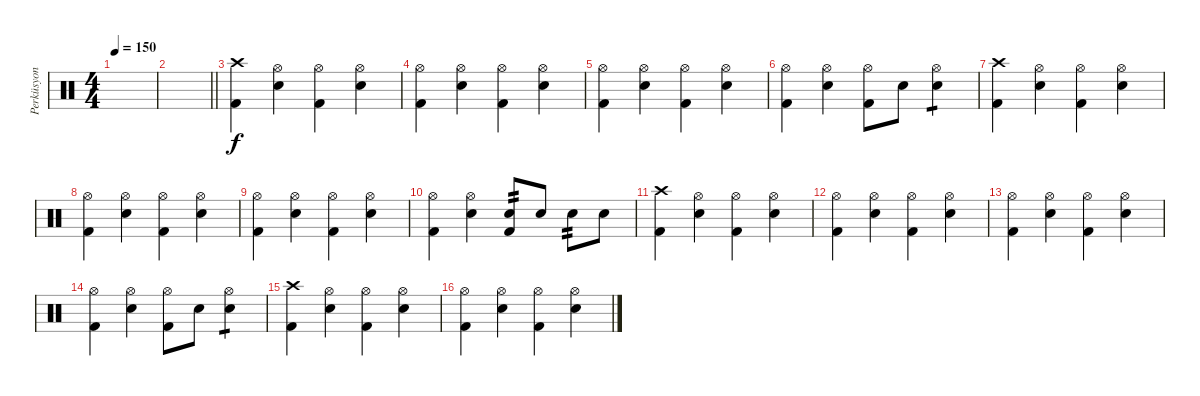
\track ("Perküsyon" "Perküsyon") {instrument percussion}
\staff {score}
\articulation defaults
\ts (4 4)
\tempo 150
\clef neutral
\ks c
|
\barLineRight lightlight
|
("Crash high (hit)" "Kick (hit) 2").4 ("Hi-Hat (open)" "Snare (hit) 2").4 ("Hi-Hat (open)" "Kick (hit) 2").4 ("Hi-Hat (open)" "Snare (hit) 2").4 |
("Hi-Hat (open)" "Kick (hit) 2").4 ("Hi-Hat (open)" "Snare (hit) 2").4 ("Hi-Hat (open)" "Kick (hit) 2").4 ("Hi-Hat (open)" "Snare (hit) 2").4 |
("Hi-Hat (open)" "Kick (hit) 2").4 ("Hi-Hat (open)" "Snare (hit) 2").4 ("Hi-Hat (open)" "Kick (hit) 2").4 ("Hi-Hat (open)" "Snare (hit) 2").4 |
("Hi-Hat (open)" "Kick (hit) 2").4 ("Hi-Hat (open)" "Snare (hit) 2").4 ("Hi-Hat (open)" "Kick (hit) 2").8 "Snare (hit) 2".8 ("Hi-Hat (open)" "Snare (hit) 2").4{tp 1} |
("Crash high (hit)" "Kick (hit) 2").4 ("Hi-Hat (open)" "Snare (hit) 2").4 ("Hi-Hat (open)" "Kick (hit) 2").4 ("Hi-Hat (open)" "Snare (hit) 2").4 |
("Hi-Hat (open)" "Kick (hit) 2").4 ("Hi-Hat (open)" "Snare (hit) 2").4 ("Hi-Hat (open)" "Kick (hit) 2").4 ("Hi-Hat (open)" "Snare (hit) 2").4 |
("Hi-Hat (open)" "Kick (hit) 2").4 ("Hi-Hat (open)" "Snare (hit) 2").4 ("Hi-Hat (open)" "Kick (hit) 2").4 ("Hi-Hat (open)" "Snare (hit) 2").4 |
("Hi-Hat (open)" "Kick (hit) 2").4 ("Hi-Hat (open)" "Snare (hit) 2").4 ("Snare (hit) 2" "Kick (hit) 2").8{tp 2} "Snare (hit) 2".8 "Snare (hit) 2".8{tp 2} "Snare (hit) 2".8 |
("Crash high (hit)" "Kick (hit) 2").4 ("Hi-Hat (open)" "Snare (hit) 2").4 ("Hi-Hat (open)" "Kick (hit) 2").4 ("Hi-Hat (open)" "Snare (hit) 2").4 |
("Hi-Hat (open)" "Kick (hit) 2").4 ("Hi-Hat (open)" "Snare (hit) 2").4 ("Hi-Hat (open)" "Kick (hit) 2").4 ("Hi-Hat (open)" "Snare (hit) 2").4 |
("Hi-Hat (open)" "Kick (hit) 2").4 ("Hi-Hat (open)" "Snare (hit) 2").4 ("Hi-Hat (open)" "Kick (hit) 2").4 ("Hi-Hat (open)" "Snare (hit) 2").4 |
("Hi-Hat (open)" "Kick (hit) 2").4 ("Hi-Hat (open)" "Snare (hit) 2").4 ("Hi-Hat (open)" "Kick (hit) 2").8 "Snare (hit) 2".8 ("Hi-Hat (open)" "Snare (hit) 2").4{tp 1} |
("Crash high (hit)" "Kick (hit) 2").4 ("Hi-Hat (open)" "Snare (hit) 2").4 ("Hi-Hat (open)" "Kick (hit) 2").4 ("Hi-Hat (open)" "Snare (hit) 2").4 |
("Hi-Hat (open)" "Kick (hit) 2").4 ("Hi-Hat (open)" "Snare (hit) 2").4 ("Hi-Hat (open)" "Kick (hit) 2").4 ("Hi-Hat (open)" "Snare (hit) 2").4
